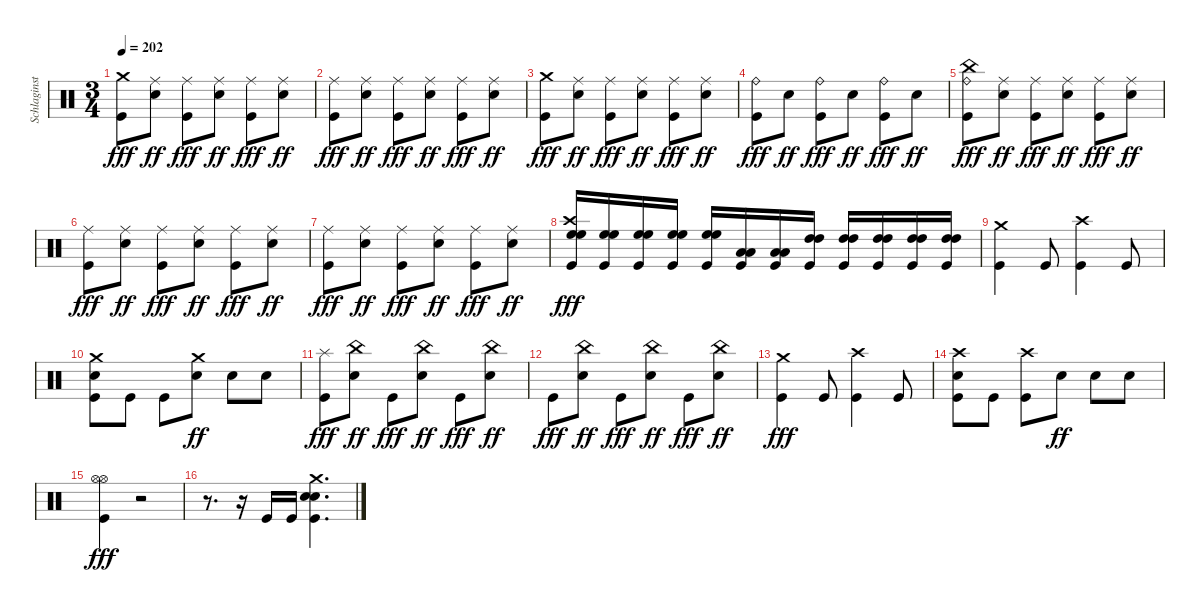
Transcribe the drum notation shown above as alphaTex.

\track ("Schlaginstrumente - Auswahl" "Schlaginst") {instrument percussion}
\staff {score}
\articulation defaults
\ts (3 4)
\tempo 202
\clef neutral
\ks c
("Crash medium (hit)" "Kick (hit)").8{dy fff} ("Ride (middle)" "Snare (hit) 2").8{dy ff} ("Ride (middle)" "Kick (hit)").8{dy fff} ("Ride (middle)" "Snare (hit) 2").8{dy ff} ("Ride (middle)" "Kick (hit)").8{dy fff} ("Ride (middle)" "Snare (hit) 2").8{dy ff} |
("Ride (middle)" "Kick (hit)").8{dy fff} ("Ride (middle)" "Snare (hit) 2").8{dy ff} ("Ride (middle)" "Kick (hit)").8{dy fff} ("Ride (middle)" "Snare (hit) 2").8{dy ff} ("Ride (middle)" "Kick (hit)").8{dy fff} ("Ride (middle)" "Snare (hit) 2").8{dy ff} |
("Crash medium (hit)" "Kick (hit)").8{dy fff} ("Ride (middle)" "Snare (hit) 2").8{dy ff} ("Ride (middle)" "Kick (hit)").8{dy fff} ("Ride (middle)" "Snare (hit) 2").8{dy ff} ("Ride (middle)" "Kick (hit)").8{dy fff} ("Ride (middle)" "Snare (hit) 2").8{dy ff} |
("Ride (bell)" "Kick (hit)").8{dy fff} "Snare (hit) 2".8{dy ff} ("Ride (bell)" "Kick (hit)").8{dy fff} "Snare (hit) 2".8{dy ff} ("Ride (bell)" "Kick (hit)").8{dy fff} "Snare (hit) 2".8{dy ff} |
("Ride (bell)" "China (hit)" "Kick (hit)").8{dy fff} ("Ride (middle)" "Snare (hit) 2").8{dy ff} ("Ride (middle)" "Kick (hit)").8{dy fff} ("Ride (middle)" "Snare (hit) 2").8{dy ff} ("Ride (middle)" "Kick (hit)").8{dy fff} ("Ride (middle)" "Snare (hit) 2").8{dy ff} |
("Ride (middle)" "Kick (hit)").8{dy fff} ("Ride (middle)" "Snare (hit) 2").8{dy ff} ("Ride (middle)" "Kick (hit)").8{dy fff} ("Ride (middle)" "Snare (hit) 2").8{dy ff} ("Ride (middle)" "Kick (hit)").8{dy fff} ("Ride (middle)" "Snare (hit) 2").8{dy ff} |
("Ride (middle)" "Kick (hit)").8{dy fff} ("Ride (middle)" "Snare (hit) 2").8{dy ff} ("Ride (middle)" "Kick (hit)").8{dy fff} ("Ride (middle)" "Snare (hit) 2").8{dy ff} ("Ride (middle)" "Kick (hit)").8{dy fff} ("Ride (middle)" "Snare (hit) 2").8{dy ff} |
("Crash high (hit)" "High Floor Tom (hit)" "High Floor Tom (hit)" "Kick (hit)").16{dy fff} ("High Floor Tom (hit)" "High Floor Tom (hit)" "Kick (hit)").16 ("High Floor Tom (hit)" "High Floor Tom (hit)" "Kick (hit)").16 ("High Floor Tom (hit)" "High Floor Tom (hit)" "Kick (hit)").16 ("High Floor Tom (hit)" "High Floor Tom (hit)" "Kick (hit)").16 ("Low Tom (hit)" "Low Tom (hit)" "Kick (hit)").16 ("Low Tom (hit)" "Low Tom (hit)" "Kick (hit)").16 ("High Tom (hit)" "High Tom (hit)" "Kick (hit)").16 ("High Tom (hit)" "High Tom (hit)" "Kick (hit)").16 ("High Tom (hit)" "High Tom (hit)" "Kick (hit)").16 ("High Tom (hit)" "High Tom (hit)" "Kick (hit)").16 ("High Tom (hit)" "High Tom (hit)" "Kick (hit)").16 |
("Crash medium (hit)" "Kick (hit)").4 "Kick (hit)".8 ("Crash high (hit)" "Kick (hit)").4 "Kick (hit)".8 |
("Crash medium (hit)" "Snare (hit) 2" "Kick (hit)").8 "Kick (hit)".8 "Kick (hit)".8 ("Crash medium (hit)" "Snare (hit) 2").8{dy ff} "Snare (hit) 2".8 "Snare (hit) 2".8 |
("Splash (hit)" "Kick (hit)").8{dy fff} ("China (hit)" "Snare (hit) 2").8{dy ff} "Kick (hit)".8{dy fff} ("China (hit)" "Snare (hit) 2").8{dy ff} "Kick (hit)".8{dy fff} ("China (hit)" "Snare (hit) 2").8{dy ff} |
"Kick (hit)".8{dy fff} ("China (hit)" "Snare (hit) 2").8{dy ff} "Kick (hit)".8{dy fff} ("China (hit)" "Snare (hit) 2").8{dy ff} "Kick (hit)".8{dy fff} ("China (hit)" "Snare (hit) 2").8{dy ff} |
("Crash medium (hit)" "Kick (hit)").4{dy fff} "Kick (hit)".8 ("Crash high (hit)" "Kick (hit)").4 "Kick (hit)".8 |
("Crash high (hit)" "Snare (hit) 2" "Kick (hit)").8 "Kick (hit)".8 ("Crash high (hit)" "Kick (hit)").8 "Snare (hit) 2".8{dy ff} "Snare (hit) 2".8 "Snare (hit) 2".8 |
("Hi-Hat (open)" "Hi-Hat (open)" "Kick (hit)").4{dy fff} r.2 |
r.8{d} r.16 "Kick (hit)".16 "Kick (hit)".16 ("Crash medium (hit)" "Snare (hit) 2" "Snare (hit) 2" "Kick (hit)").4{d}
